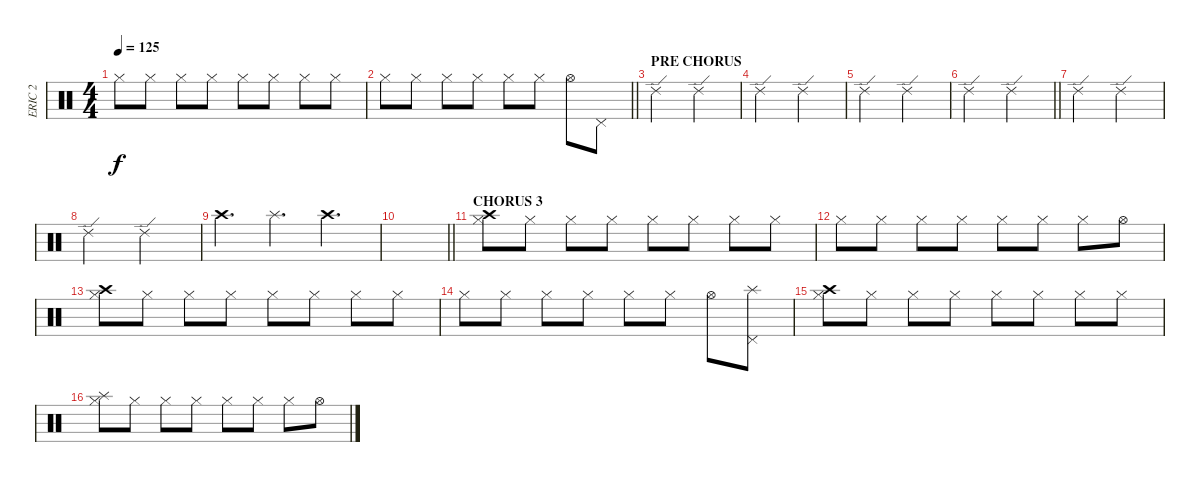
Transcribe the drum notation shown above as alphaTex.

\track ("ERIC 2" "ERIC 2") {instrument percussion}
\staff {score}
\articulation defaults
\ts (4 4)
\tempo 125
\clef neutral
\ks c "Hi-Hat (closed)".8{dy f} "Hi-Hat (closed)".8 "Hi-Hat (closed)".8 "Hi-Hat (closed)".8 "Hi-Hat (closed)".8 "Hi-Hat (closed)".8 "Hi-Hat (closed)".8 "Hi-Hat (closed)".8
|
\barLineRight lightlight "Hi-Hat (closed)".8 "Hi-Hat (closed)".8 "Hi-Hat (closed)".8 "Hi-Hat (closed)".8 "Hi-Hat (closed)".8 "Hi-Hat (closed)".8 "Hi-Hat (open)".8 "Pedal Hi-Hat (hit)".8
|
\section ("" "PRE CHORUS")
"Ride (edge) 2".2 "Ride (edge) 2".2 |
"Ride (edge) 2".2 "Ride (edge) 2".2 |
"Ride (edge) 2".2 "Ride (edge) 2".2 |
\barLineRight lightlight "Ride (edge) 2".2 "Ride (edge) 2".2
|
"Ride (edge) 2".2 "Ride (edge) 2".2 |
"Ride (edge) 2".2 "Ride (edge) 2".2 |
"Crash high (hit)".4{d} "Splash (hit)".4{d} "Crash high (hit)".4{d} |
\barLineRight lightlight
|
\section ("" "CHORUS 3")
("Crash high (hit)" "Hi-Hat (closed)").8 "Hi-Hat (closed)".8 "Hi-Hat (closed)".8 "Hi-Hat (closed)".8 "Hi-Hat (closed)".8 "Hi-Hat (closed)".8 "Hi-Hat (closed)".8 "Hi-Hat (closed)".8 |
"Hi-Hat (closed)".8 "Hi-Hat (closed)".8 "Hi-Hat (closed)".8 "Hi-Hat (closed)".8 "Hi-Hat (closed)".8 "Hi-Hat (closed)".8 "Hi-Hat (closed)".8 "Hi-Hat (open)".8 |
("Crash high (hit)" "Hi-Hat (closed)").8 "Hi-Hat (closed)".8 "Hi-Hat (closed)".8 "Hi-Hat (closed)".8 "Hi-Hat (closed)".8 "Hi-Hat (closed)".8 "Hi-Hat (closed)".8 "Hi-Hat (closed)".8 |
"Hi-Hat (closed)".8 "Hi-Hat (closed)".8 "Hi-Hat (closed)".8 "Hi-Hat (closed)".8 "Hi-Hat (closed)".8 "Hi-Hat (closed)".8 "Hi-Hat (open)".8 ("Splash (hit)" "Pedal Hi-Hat (hit)").8 |
("Crash high (hit)" "Hi-Hat (closed)").8 "Hi-Hat (closed)".8 "Hi-Hat (closed)".8 "Hi-Hat (closed)".8 "Hi-Hat (closed)".8 "Hi-Hat (closed)".8 "Hi-Hat (closed)".8 "Hi-Hat (closed)".8 |
("Splash (hit)" "Hi-Hat (closed)").8 "Hi-Hat (closed)".8 "Hi-Hat (closed)".8 "Hi-Hat (closed)".8 "Hi-Hat (closed)".8 "Hi-Hat (closed)".8 "Hi-Hat (closed)".8 "Hi-Hat (open)".8
